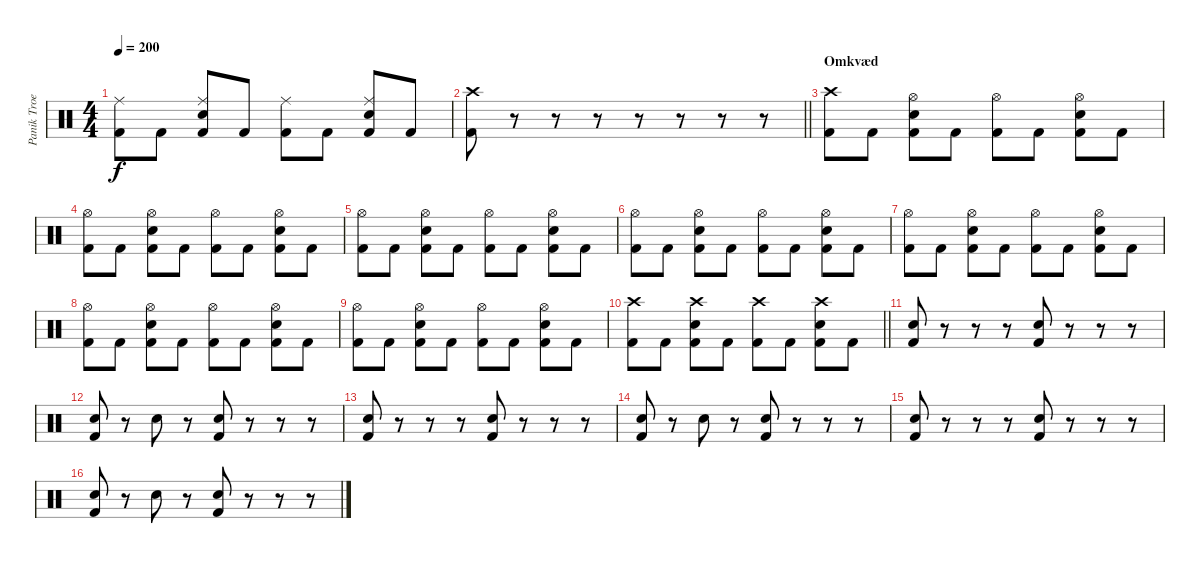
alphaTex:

\track ("Panik Troels ( Dengang )" "Panik Troe") {instrument percussion}
\staff {score}
\articulation defaults
\ts (4 4)
\tempo 200
\clef neutral
\ks c
("Kick (hit) 2" "Ride (middle)").8{dy f} "Kick (hit) 2".8 ("Kick (hit) 2" "Ride (middle)" "Snare (hit) 2").8 "Kick (hit) 2".8 ("Kick (hit) 2" "Ride (middle)").8 "Kick (hit) 2".8 ("Kick (hit) 2" "Ride (middle)" "Snare (hit) 2").8 "Kick (hit) 2".8 |
\barLineRight lightlight
("Kick (hit) 2" "Crash high (hit)").8 r.8 r.8 r.8 r.8 r.8 r.8 r.8 |
\section ("" "Omkvæd")
("Kick (hit) 2" "Crash high (hit)").8 "Kick (hit) 2".8 ("Kick (hit) 2" "Hi-Hat (open)" "Snare (hit) 2").8 "Kick (hit) 2".8 ("Kick (hit) 2" "Hi-Hat (open)").8 "Kick (hit) 2".8 ("Kick (hit) 2" "Hi-Hat (open)" "Snare (hit) 2").8 "Kick (hit) 2".8 |
("Kick (hit) 2" "Hi-Hat (open)").8 "Kick (hit) 2".8 ("Kick (hit) 2" "Hi-Hat (open)" "Snare (hit) 2").8 "Kick (hit) 2".8 ("Kick (hit) 2" "Hi-Hat (open)").8 "Kick (hit) 2".8 ("Kick (hit) 2" "Hi-Hat (open)" "Snare (hit) 2").8 "Kick (hit) 2".8 |
("Kick (hit) 2" "Hi-Hat (open)").8 "Kick (hit) 2".8 ("Kick (hit) 2" "Hi-Hat (open)" "Snare (hit) 2").8 "Kick (hit) 2".8 ("Kick (hit) 2" "Hi-Hat (open)").8 "Kick (hit) 2".8 ("Kick (hit) 2" "Hi-Hat (open)" "Snare (hit) 2").8 "Kick (hit) 2".8 |
("Kick (hit) 2" "Hi-Hat (open)").8 "Kick (hit) 2".8 ("Kick (hit) 2" "Hi-Hat (open)" "Snare (hit) 2").8 "Kick (hit) 2".8 ("Kick (hit) 2" "Hi-Hat (open)").8 "Kick (hit) 2".8 ("Kick (hit) 2" "Hi-Hat (open)" "Snare (hit) 2").8 "Kick (hit) 2".8 |
("Kick (hit) 2" "Hi-Hat (open)").8 "Kick (hit) 2".8 ("Kick (hit) 2" "Hi-Hat (open)" "Snare (hit) 2").8 "Kick (hit) 2".8 ("Kick (hit) 2" "Hi-Hat (open)").8 "Kick (hit) 2".8 ("Kick (hit) 2" "Hi-Hat (open)" "Snare (hit) 2").8 "Kick (hit) 2".8 |
("Kick (hit) 2" "Hi-Hat (open)").8 "Kick (hit) 2".8 ("Kick (hit) 2" "Hi-Hat (open)" "Snare (hit) 2").8 "Kick (hit) 2".8 ("Kick (hit) 2" "Hi-Hat (open)").8 "Kick (hit) 2".8 ("Kick (hit) 2" "Hi-Hat (open)" "Snare (hit) 2").8 "Kick (hit) 2".8 |
("Kick (hit) 2" "Hi-Hat (open)").8 "Kick (hit) 2".8 ("Kick (hit) 2" "Hi-Hat (open)" "Snare (hit) 2").8 "Kick (hit) 2".8 ("Kick (hit) 2" "Hi-Hat (open)").8 "Kick (hit) 2".8 ("Kick (hit) 2" "Hi-Hat (open)" "Snare (hit) 2").8 "Kick (hit) 2".8 |
\barLineRight lightlight
("Kick (hit) 2" "Crash high (hit)").8 "Kick (hit) 2".8 ("Kick (hit) 2" "Crash high (hit)" "Snare (hit) 2").8 "Kick (hit) 2".8 ("Kick (hit) 2" "Crash high (hit)").8 "Kick (hit) 2".8 ("Kick (hit) 2" "Crash high (hit)" "Snare (hit) 2").8 "Kick (hit) 2".8 |
("Kick (hit) 2" "Snare (hit) 2").8 r.8 r.8 r.8 ("Kick (hit) 2" "Snare (hit) 2").8 r.8 r.8 r.8 |
("Kick (hit) 2" "Snare (hit) 2").8 r.8 "Snare (hit) 2".8 r.8 ("Kick (hit) 2" "Snare (hit) 2").8 r.8 r.8 r.8 |
("Kick (hit) 2" "Snare (hit) 2").8 r.8 r.8 r.8 ("Kick (hit) 2" "Snare (hit) 2").8 r.8 r.8 r.8 |
("Kick (hit) 2" "Snare (hit) 2").8 r.8 "Snare (hit) 2".8 r.8 ("Kick (hit) 2" "Snare (hit) 2").8 r.8 r.8 r.8 |
("Kick (hit) 2" "Snare (hit) 2").8 r.8 r.8 r.8 ("Kick (hit) 2" "Snare (hit) 2").8 r.8 r.8 r.8 |
("Kick (hit) 2" "Snare (hit) 2").8 r.8 "Snare (hit) 2".8 r.8 ("Kick (hit) 2" "Snare (hit) 2").8 r.8 r.8 r.8
